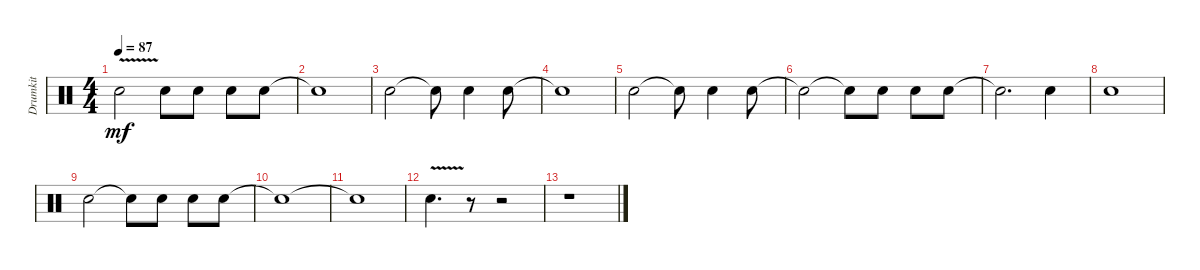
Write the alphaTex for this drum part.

\track ("Drumkit" "Drumkit") {instrument percussion}
\staff {score}
\articulation defaults
\ts (4 4)
\tempo 87
\clef neutral
\ks c "Snare (hit)"{v t}.2{dy mf} "Snare (hit)".8 "Snare (hit)".8 "Snare (hit)".8 "Snare (hit)".8
|
"Snare (hit)"{t}.1 |
"Snare (hit)".2 "Snare (hit)"{t}.8 "Snare (hit)".4 "Snare (hit)".8 |
"Snare (hit)"{t}.1 |
"Snare (hit)".2 "Snare (hit)"{t}.8 "Snare (hit)".4 "Snare (hit)".8 |
"Snare (hit)"{t}.2 "Snare (hit)"{t}.8 "Snare (hit)".8 "Snare (hit)".8 "Snare (hit)".8 |
"Snare (hit)"{t}.2{d} "Snare (hit)".4 |
"Snare (hit)".1 |
"Snare (hit)".2 "Snare (hit)"{t}.8 "Snare (hit)".8 "Snare (hit)".8 "Snare (hit)".8 |
"Snare (hit)"{t}.1 |
"Snare (hit)"{t}.1 |
"Snare (hit)"{v}.4{d} r.8 r.2 |
r.1
